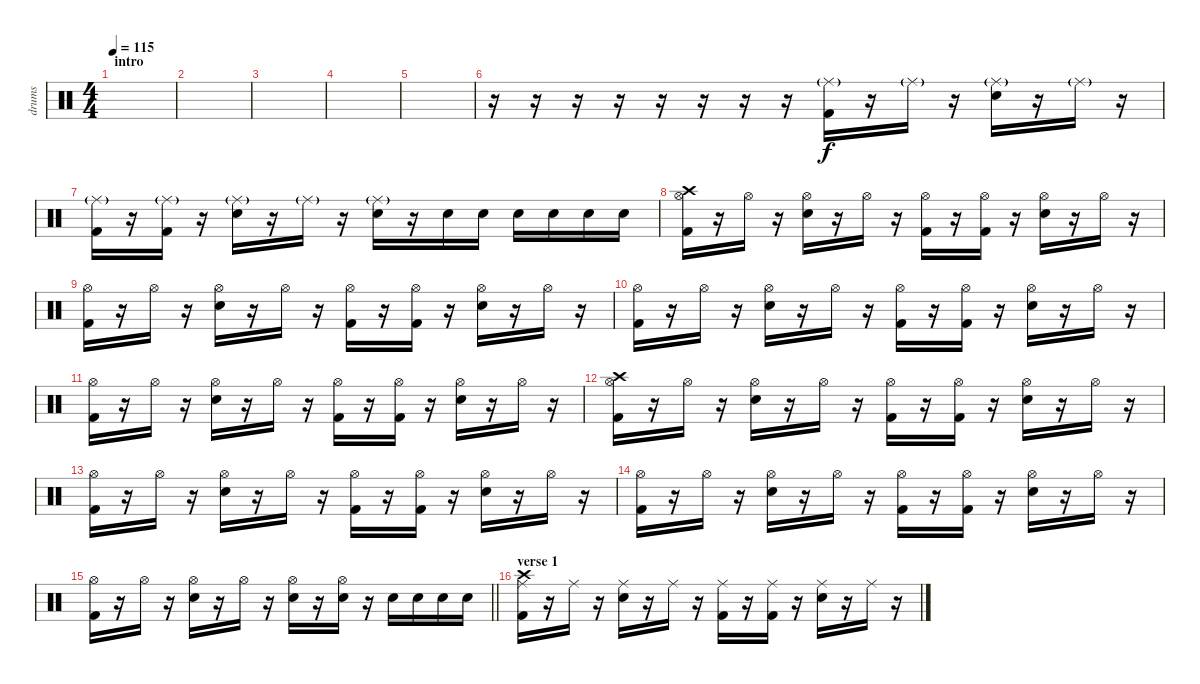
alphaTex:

\track ("drums" "drums") {instrument percussion}
\staff {score}
\articulation defaults
\ts (4 4)
\section ("" "intro")
\tempo 115
\clef neutral
\ks c
|
|
|
|
|
r.16 r.16 r.16 r.16 r.16 r.16 r.16 r.16 ("Kick (hit) 2" "Ride (middle)"{g}).16 r.16 "Ride (middle)"{g}.16 r.16 ("Electric Snare (hit)" "Ride (middle)"{g}).16 r.16 "Ride (middle)"{g}.16 r.16 |
("Kick (hit) 2" "Ride (middle)"{g}).16 r.16 ("Kick (hit) 2" "Ride (middle)"{g}).16 r.16 ("Electric Snare (hit)" "Ride (middle)"{g}).16 r.16 "Ride (middle)"{g}.16 r.16 ("Electric Snare (hit)" "Ride (middle)"{g}).16 r.16 "Electric Snare (hit)".16{dy f} "Electric Snare (hit)".16 "Electric Snare (hit)".16 "Electric Snare (hit)".16 "Electric Snare (hit)".16 "Electric Snare (hit)".16 |
("Kick (hit) 2" "Hi-Hat (open)" "Crash high (hit)").16 r.16 "Hi-Hat (open)".16 r.16 ("Electric Snare (hit)" "Hi-Hat (open)").16 r.16 "Hi-Hat (open)".16 r.16 ("Kick (hit) 2" "Hi-Hat (open)").16 r.16 ("Kick (hit) 2" "Hi-Hat (open)").16 r.16 ("Electric Snare (hit)" "Hi-Hat (open)").16 r.16 "Hi-Hat (open)".16 r.16 |
("Kick (hit) 2" "Hi-Hat (open)").16 r.16 "Hi-Hat (open)".16 r.16 ("Electric Snare (hit)" "Hi-Hat (open)").16 r.16 "Hi-Hat (open)".16 r.16 ("Kick (hit) 2" "Hi-Hat (open)").16 r.16 ("Kick (hit) 2" "Hi-Hat (open)").16 r.16 ("Electric Snare (hit)" "Hi-Hat (open)").16 r.16 "Hi-Hat (open)".16 r.16 |
("Kick (hit) 2" "Hi-Hat (open)").16 r.16 "Hi-Hat (open)".16 r.16 ("Electric Snare (hit)" "Hi-Hat (open)").16 r.16 "Hi-Hat (open)".16 r.16 ("Kick (hit) 2" "Hi-Hat (open)").16 r.16 ("Kick (hit) 2" "Hi-Hat (open)").16 r.16 ("Electric Snare (hit)" "Hi-Hat (open)").16 r.16 "Hi-Hat (open)".16 r.16 |
("Kick (hit) 2" "Hi-Hat (open)").16 r.16 "Hi-Hat (open)".16 r.16 ("Electric Snare (hit)" "Hi-Hat (open)").16 r.16 "Hi-Hat (open)".16 r.16 ("Kick (hit) 2" "Hi-Hat (open)").16 r.16 ("Kick (hit) 2" "Hi-Hat (open)").16 r.16 ("Electric Snare (hit)" "Hi-Hat (open)").16 r.16 "Hi-Hat (open)".16 r.16 |
("Kick (hit) 2" "Hi-Hat (open)" "Crash high (hit)").16 r.16 "Hi-Hat (open)".16 r.16 ("Electric Snare (hit)" "Hi-Hat (open)").16 r.16 "Hi-Hat (open)".16 r.16 ("Kick (hit) 2" "Hi-Hat (open)").16 r.16 ("Kick (hit) 2" "Hi-Hat (open)").16 r.16 ("Electric Snare (hit)" "Hi-Hat (open)").16 r.16 "Hi-Hat (open)".16 r.16 |
("Kick (hit) 2" "Hi-Hat (open)").16 r.16 "Hi-Hat (open)".16 r.16 ("Electric Snare (hit)" "Hi-Hat (open)").16 r.16 "Hi-Hat (open)".16 r.16 ("Kick (hit) 2" "Hi-Hat (open)").16 r.16 ("Kick (hit) 2" "Hi-Hat (open)").16 r.16 ("Electric Snare (hit)" "Hi-Hat (open)").16 r.16 "Hi-Hat (open)".16 r.16 |
("Kick (hit) 2" "Hi-Hat (open)").16 r.16 "Hi-Hat (open)".16 r.16 ("Electric Snare (hit)" "Hi-Hat (open)").16 r.16 "Hi-Hat (open)".16 r.16 ("Kick (hit) 2" "Hi-Hat (open)").16 r.16 ("Kick (hit) 2" "Hi-Hat (open)").16 r.16 ("Electric Snare (hit)" "Hi-Hat (open)").16 r.16 "Hi-Hat (open)".16 r.16 |
\barLineRight lightlight
("Kick (hit) 2" "Hi-Hat (open)").16 r.16 "Hi-Hat (open)".16 r.16 ("Electric Snare (hit)" "Hi-Hat (open)").16 r.16 "Hi-Hat (open)".16 r.16 ("Electric Snare (hit)" "Hi-Hat (open)").16 r.16 ("Electric Snare (hit)" "Hi-Hat (open)").16 r.16 "Electric Snare (hit)".16 "Electric Snare (hit)".16 "Electric Snare (hit)".16 "Electric Snare (hit)".16 |
\section ("" "verse 1")
("Kick (hit) 2" "Ride (middle)" "Crash high (hit)").16 r.16 "Ride (middle)".16 r.16 ("Electric Snare (hit)" "Ride (middle)").16 r.16 "Ride (middle)".16 r.16 ("Kick (hit) 2" "Ride (middle)").16 r.16 ("Kick (hit) 2" "Ride (middle)").16 r.16 ("Electric Snare (hit)" "Ride (middle)").16 r.16 "Ride (middle)".16 r.16
